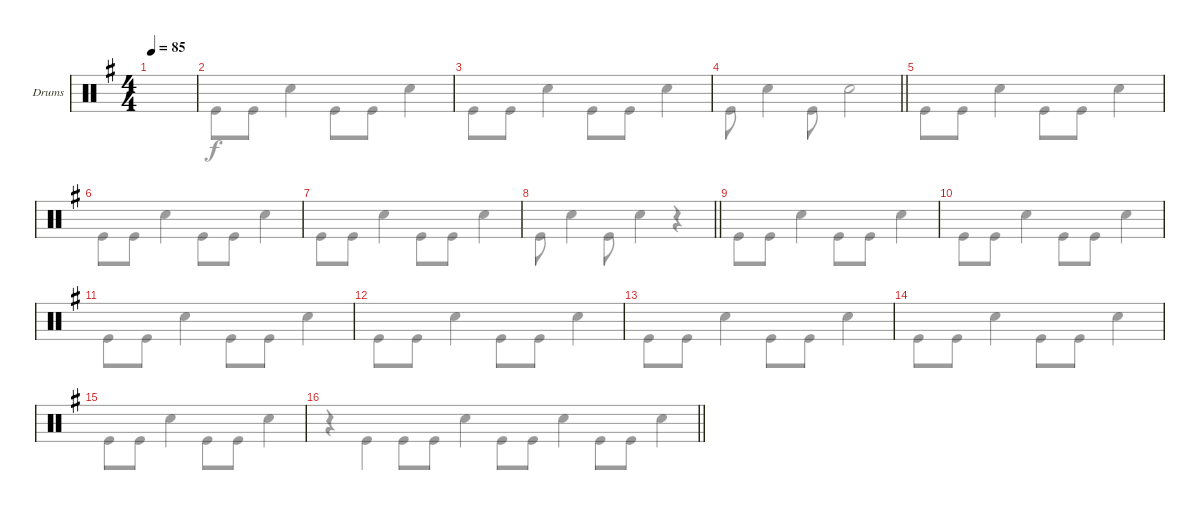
\defaultSystemsLayout 4
\bracketExtendMode groupsimilarinstruments
\firstSystemTrackNameOrientation horizontal
\otherSystemsTrackNameOrientation horizontal
\track ("Drumkit" "Drums") {instrument percussion}
\staff {score}
\articulation defaults
\voice
\ts (4 4)
\scale
0.524967
\tempo 85
\accidentals auto
\clef neutral
\ottava regular
\simile none
\ks eminor
|
\scale
0.475235 |
\scale
0.476495 |
\scale
0.523527
\barLineRight lightlight
|
\scale
0.48645 |
\scale
0.513768 |
\scale
0.470788 |
\scale
0.529233
\barLineRight lightlight
|
\scale
0.508571 |
\scale
0.491453 |
\scale
0.490746 |
\scale
0.509675 |
\scale
0.507143 |
\scale
0.492877 |
\scale
0.48076 |
\scale
0.519669
\barLineRight lightlight
\voice
\clef neutral
\ottava regular
\simile none
\ks eminor
r.4{dy f} "Kick (hit)".4 "Kick (hit)".8 "Kick (hit)".8 "Snare (hit) 2".4 |
"Kick (hit)".8 "Kick (hit)".8 "Snare (hit) 2".4 "Kick (hit)".8 "Kick (hit)".8 "Snare (hit) 2".4 |
"Kick (hit)".8 "Kick (hit)".8 "Snare (hit) 2".4 "Kick (hit)".8 "Kick (hit)".8 "Snare (hit) 2".4 |
\barLineRight lightlight "Kick (hit)".8 "Snare (hit) 2".4 "Kick (hit)".8 "Snare (hit) 2".2
|
"Kick (hit)".8 "Kick (hit)".8 "Snare (hit) 2".4 "Kick (hit)".8 "Kick (hit)".8 "Snare (hit) 2".4 |
"Kick (hit)".8 "Kick (hit)".8 "Snare (hit) 2".4 "Kick (hit)".8 "Kick (hit)".8 "Snare (hit) 2".4 |
"Kick (hit)".8 "Kick (hit)".8 "Snare (hit) 2".4 "Kick (hit)".8 "Kick (hit)".8 "Snare (hit) 2".4 |
\barLineRight lightlight "Kick (hit)".8 "Snare (hit) 2".4 "Kick (hit)".8 "Snare (hit) 2".4
r.4 |
"Kick (hit)".8 "Kick (hit)".8 "Snare (hit) 2".4 "Kick (hit)".8 "Kick (hit)".8 "Snare (hit) 2".4 |
"Kick (hit)".8 "Kick (hit)".8 "Snare (hit) 2".4 "Kick (hit)".8 "Kick (hit)".8 "Snare (hit) 2".4 |
"Kick (hit)".8 "Kick (hit)".8 "Snare (hit) 2".4 "Kick (hit)".8 "Kick (hit)".8 "Snare (hit) 2".4 |
"Kick (hit)".8 "Kick (hit)".8 "Snare (hit) 2".4 "Kick (hit)".8 "Kick (hit)".8 "Snare (hit) 2".4 |
"Kick (hit)".8 "Kick (hit)".8 "Snare (hit) 2".4 "Kick (hit)".8 "Kick (hit)".8 "Snare (hit) 2".4 |
"Kick (hit)".8 "Kick (hit)".8 "Snare (hit) 2".4 "Kick (hit)".8 "Kick (hit)".8 "Snare (hit) 2".4 |
"Kick (hit)".8 "Kick (hit)".8 "Snare (hit) 2".4 "Kick (hit)".8 "Kick (hit)".8 "Snare (hit) 2".4 |
\barLineRight lightlight "Kick (hit)".8 "Kick (hit)".8 "Snare (hit) 2".4 "Kick (hit)".8 "Kick (hit)".8 "Snare (hit) 2".4
